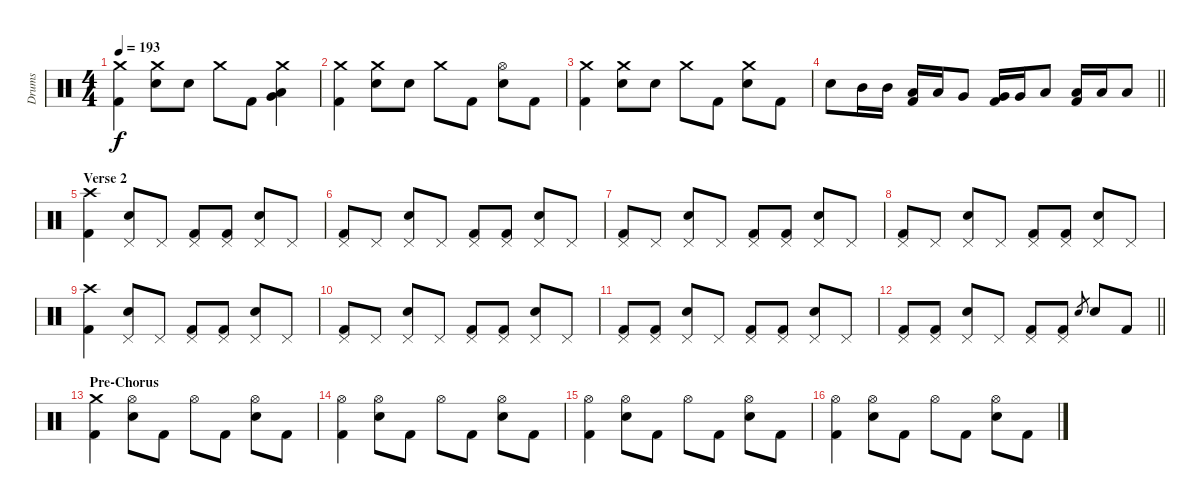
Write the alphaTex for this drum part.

\track ("Drums" "Drums") {instrument percussion}
\staff {score}
\articulation defaults
\ts (4 4)
\tempo 193
\clef neutral
\ks c
("Crash medium (hit)" "Kick (hit) 2").4{dy f} ("Crash medium (hit)" "Electric Snare (hit)").8 "Electric Snare (hit)".8 "Crash medium (hit)".8 "Kick (hit) 2".8 ("Crash medium (hit)" "Very Low Tom (hit)" "Low Tom (hit)").4 |
("Crash medium (hit)" "Kick (hit) 2").4 ("Crash medium (hit)" "Electric Snare (hit)").8 "Electric Snare (hit)".8 "Crash medium (hit)".8 "Kick (hit) 2".8 ("Hi-Hat (open)" "Electric Snare (hit)").8 "Kick (hit) 2".8 |
("Crash medium (hit)" "Kick (hit) 2").4 ("Crash medium (hit)" "Electric Snare (hit)").8 "Electric Snare (hit)".8 "Crash medium (hit)".8 "Kick (hit) 2".8 ("Crash medium (hit)" "Electric Snare (hit)").8 "Kick (hit) 2".8 |
\barLineRight lightlight "Electric Snare (hit)".8 "Mid Tom (hit)".16 "Mid Tom (hit)".16
("Low Tom (hit)" "Kick (hit) 2").16 "Low Tom (hit)".16 "Very Low Tom (hit)".8 ("Very Low Tom (hit)" "Kick (hit) 2").16 "Very Low Tom (hit)".16 "Low Floor Tom (hit)".8 ("Low Floor Tom (hit)" "Kick (hit) 2").16 "Low Floor Tom (hit)".16 "Low Floor Tom (hit)".8 |
\section ("" "Verse 2")
("Crash high (hit)" "Kick (hit) 2").4 ("Pedal Hi-Hat (hit)" "Electric Snare (hit)").8 "Pedal Hi-Hat (hit)".8 ("Pedal Hi-Hat (hit)" "Kick (hit) 2").8 ("Pedal Hi-Hat (hit)" "Kick (hit) 2").8 ("Pedal Hi-Hat (hit)" "Electric Snare (hit)").8 "Pedal Hi-Hat (hit)".8 |
("Pedal Hi-Hat (hit)" "Kick (hit) 2").8 "Pedal Hi-Hat (hit)".8 ("Pedal Hi-Hat (hit)" "Electric Snare (hit)").8 "Pedal Hi-Hat (hit)".8 ("Pedal Hi-Hat (hit)" "Kick (hit) 2").8 ("Pedal Hi-Hat (hit)" "Kick (hit) 2").8 ("Pedal Hi-Hat (hit)" "Electric Snare (hit)").8 "Pedal Hi-Hat (hit)".8 |
("Pedal Hi-Hat (hit)" "Kick (hit) 2").8 "Pedal Hi-Hat (hit)".8 ("Pedal Hi-Hat (hit)" "Electric Snare (hit)").8 "Pedal Hi-Hat (hit)".8 ("Pedal Hi-Hat (hit)" "Kick (hit) 2").8 ("Pedal Hi-Hat (hit)" "Kick (hit) 2").8 ("Pedal Hi-Hat (hit)" "Electric Snare (hit)").8 "Pedal Hi-Hat (hit)".8 |
("Pedal Hi-Hat (hit)" "Kick (hit) 2").8 "Pedal Hi-Hat (hit)".8 ("Pedal Hi-Hat (hit)" "Electric Snare (hit)").8 "Pedal Hi-Hat (hit)".8 ("Pedal Hi-Hat (hit)" "Kick (hit) 2").8 ("Pedal Hi-Hat (hit)" "Kick (hit) 2").8 ("Pedal Hi-Hat (hit)" "Electric Snare (hit)").8 "Pedal Hi-Hat (hit)".8 |
("Crash high (hit)" "Kick (hit) 2").4 ("Pedal Hi-Hat (hit)" "Electric Snare (hit)").8 "Pedal Hi-Hat (hit)".8 ("Pedal Hi-Hat (hit)" "Kick (hit) 2").8 ("Pedal Hi-Hat (hit)" "Kick (hit) 2").8 ("Pedal Hi-Hat (hit)" "Electric Snare (hit)").8 "Pedal Hi-Hat (hit)".8 |
("Pedal Hi-Hat (hit)" "Kick (hit) 2").8 "Pedal Hi-Hat (hit)".8 ("Pedal Hi-Hat (hit)" "Electric Snare (hit)").8 "Pedal Hi-Hat (hit)".8 ("Pedal Hi-Hat (hit)" "Kick (hit) 2").8 ("Pedal Hi-Hat (hit)" "Kick (hit) 2").8 ("Pedal Hi-Hat (hit)" "Electric Snare (hit)").8 "Pedal Hi-Hat (hit)".8 |
("Pedal Hi-Hat (hit)" "Kick (hit) 2").8 ("Pedal Hi-Hat (hit)" "Kick (hit) 2").8 ("Pedal Hi-Hat (hit)" "Electric Snare (hit)").8 "Pedal Hi-Hat (hit)".8 ("Pedal Hi-Hat (hit)" "Kick (hit) 2").8 ("Pedal Hi-Hat (hit)" "Kick (hit) 2").8 ("Pedal Hi-Hat (hit)" "Electric Snare (hit)").8 "Pedal Hi-Hat (hit)".8 |
\barLineRight lightlight
("Pedal Hi-Hat (hit)" "Kick (hit) 2").8 ("Pedal Hi-Hat (hit)" "Kick (hit) 2").8 ("Pedal Hi-Hat (hit)" "Electric Snare (hit)").8 "Pedal Hi-Hat (hit)".8 ("Pedal Hi-Hat (hit)" "Kick (hit) 2").8 ("Pedal Hi-Hat (hit)" "Kick (hit) 2").8 "Electric Snare (hit)".8{gr} "Electric Snare (hit)".8 "Kick (hit) 2".8 |
\section ("" "Pre-Chorus")
("Crash medium (hit)" "Kick (hit) 2").4 ("Hi-Hat (open)" "Electric Snare (hit)").8 "Kick (hit) 2".8 "Hi-Hat (open)".8 "Kick (hit) 2".8 ("Hi-Hat (open)" "Electric Snare (hit)").8 "Kick (hit) 2".8 |
("Hi-Hat (open)" "Kick (hit) 2").4 ("Hi-Hat (open)" "Electric Snare (hit)").8 "Kick (hit) 2".8 "Hi-Hat (open)".8 "Kick (hit) 2".8 ("Hi-Hat (open)" "Electric Snare (hit)").8 "Kick (hit) 2".8 |
("Hi-Hat (open)" "Kick (hit) 2").4 ("Hi-Hat (open)" "Electric Snare (hit)").8 "Kick (hit) 2".8 "Hi-Hat (open)".8 "Kick (hit) 2".8 ("Hi-Hat (open)" "Electric Snare (hit)").8 "Kick (hit) 2".8 |
("Hi-Hat (open)" "Kick (hit) 2").4 ("Hi-Hat (open)" "Electric Snare (hit)").8 "Kick (hit) 2".8 "Hi-Hat (open)".8 "Kick (hit) 2".8 ("Hi-Hat (open)" "Electric Snare (hit)").8 "Kick (hit) 2".8
